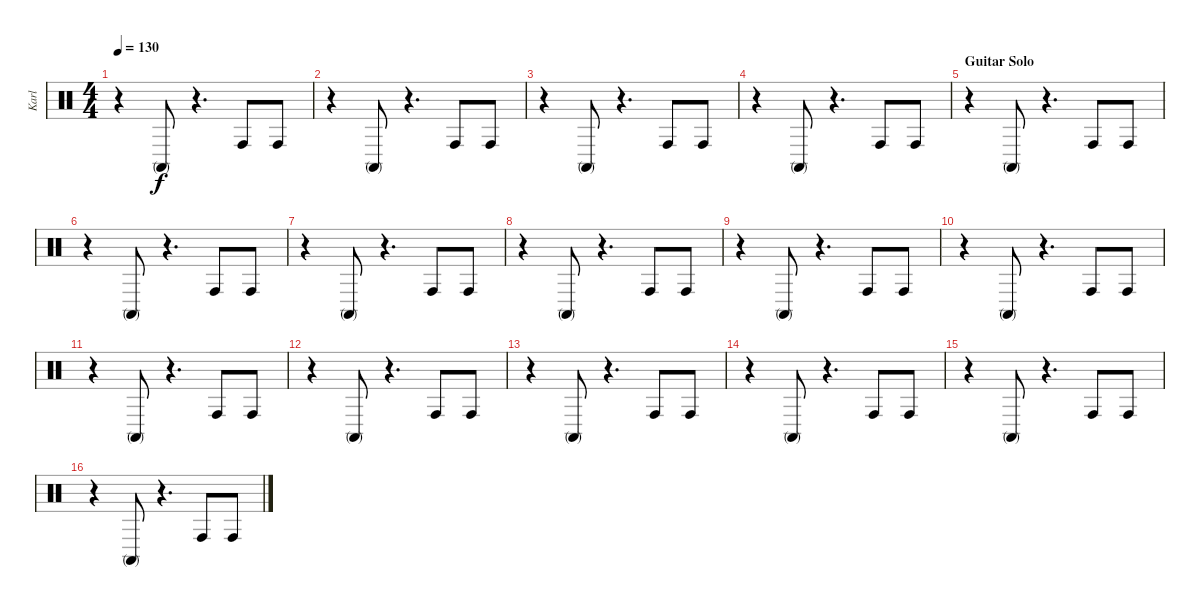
\track ("Karl" "Karl") {instrument percussion}
\staff {score}
\articulation defaults
\ts (4 4)
\tempo 130
\clef neutral
\ks c
r.4{dy f} "Conga high (mute)".8 r.4{d} "Conga high (hit)".8 "Conga high (hit)".8 |
r.4 "Conga high (mute)".8 r.4{d} "Conga high (hit)".8 "Conga high (hit)".8 |
r.4 "Conga high (mute)".8 r.4{d} "Conga high (hit)".8 "Conga high (hit)".8 |
r.4 "Conga high (mute)".8 r.4{d} "Conga high (hit)".8 "Conga high (hit)".8 |
\section ("" "Guitar Solo")
r.4 "Conga high (mute)".8 r.4{d} "Conga high (hit)".8 "Conga high (hit)".8 |
r.4 "Conga high (mute)".8 r.4{d} "Conga high (hit)".8 "Conga high (hit)".8 |
r.4 "Conga high (mute)".8 r.4{d} "Conga high (hit)".8 "Conga high (hit)".8 |
r.4 "Conga high (mute)".8 r.4{d} "Conga high (hit)".8 "Conga high (hit)".8 |
r.4 "Conga high (mute)".8 r.4{d} "Conga high (hit)".8 "Conga high (hit)".8 |
r.4 "Conga high (mute)".8 r.4{d} "Conga high (hit)".8 "Conga high (hit)".8 |
r.4 "Conga high (mute)".8 r.4{d} "Conga high (hit)".8 "Conga high (hit)".8 |
r.4 "Conga high (mute)".8 r.4{d} "Conga high (hit)".8 "Conga high (hit)".8 |
r.4 "Conga high (mute)".8 r.4{d} "Conga high (hit)".8 "Conga high (hit)".8 |
r.4 "Conga high (mute)".8 r.4{d} "Conga high (hit)".8 "Conga high (hit)".8 |
r.4 "Conga high (mute)".8 r.4{d} "Conga high (hit)".8 "Conga high (hit)".8 |
r.4 "Conga high (mute)".8 r.4{d} "Conga high (hit)".8 "Conga high (hit)".8
